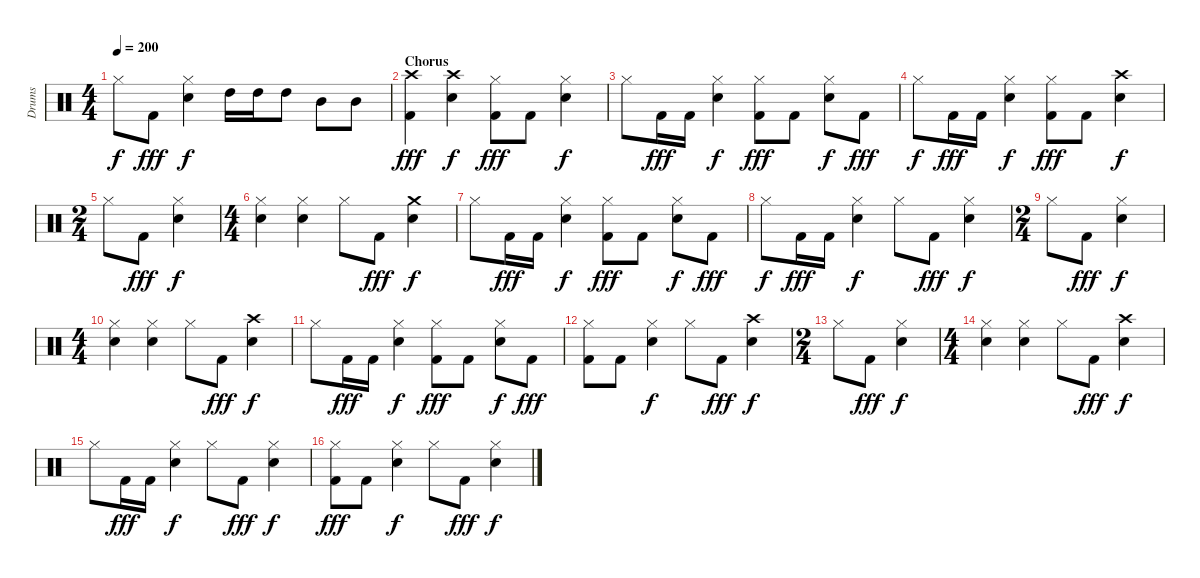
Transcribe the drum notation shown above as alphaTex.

\track ("Drums" "Drums") {instrument percussion}
\staff {score}
\articulation defaults
\ts (4 4)
\tempo 200
\clef neutral
\ks c "Hi-Hat (closed)".8{dy f} "Kick (hit) 2".8{dy fff}
("Hi-Hat (closed)" "Snare (hit) 2").4{dy f} "High Tom (hit)".16 "High Tom (hit)".16 "High Tom (hit)".8 "Mid Tom (hit)".8 "Mid Tom (hit)".8 |
\section ("" "Chorus")
("Crash high (hit)" "Kick (hit) 2").4{dy fff} ("Crash high (hit)" "Snare (hit) 2").4{dy f} ("Hi-Hat (closed)" "Kick (hit) 2").8{dy fff} "Kick (hit) 2".8 ("Hi-Hat (closed)" "Snare (hit) 2").4{dy f} |
"Hi-Hat (closed)".8 "Kick (hit) 2".16{dy fff} "Kick (hit) 2".16 ("Hi-Hat (closed)" "Snare (hit) 2").4{dy f} ("Hi-Hat (closed)" "Kick (hit) 2").8{dy fff} "Kick (hit) 2".8 ("Hi-Hat (closed)" "Snare (hit) 2").8{dy f} "Kick (hit) 2".8{dy fff} |
"Hi-Hat (closed)".8{dy f} "Kick (hit) 2".16{dy fff} "Kick (hit) 2".16 ("Hi-Hat (closed)" "Snare (hit) 2").4{dy f} ("Hi-Hat (closed)" "Kick (hit) 2").8{dy fff} "Kick (hit) 2".8 ("Crash high (hit)" "Snare (hit) 2").4{dy f} |
\ts (2 4)
"Hi-Hat (closed)".8 "Kick (hit) 2".8{dy fff} ("Hi-Hat (closed)" "Snare (hit) 2").4{dy f} |
\ts (4 4)
("Hi-Hat (closed)" "Snare (hit) 2").4 ("Hi-Hat (closed)" "Snare (hit) 2").4 "Hi-Hat (closed)".8 "Kick (hit) 2".8{dy fff} ("Crash medium (hit)" "Snare (hit) 2").4{dy f} |
"Hi-Hat (closed)".8 "Kick (hit) 2".16{dy fff} "Kick (hit) 2".16 ("Hi-Hat (closed)" "Snare (hit) 2").4{dy f} ("Hi-Hat (closed)" "Kick (hit) 2").8{dy fff} "Kick (hit) 2".8 ("Hi-Hat (closed)" "Snare (hit) 2").8{dy f} "Kick (hit) 2".8{dy fff} |
"Hi-Hat (closed)".8{dy f} "Kick (hit) 2".16{dy fff} "Kick (hit) 2".16 ("Hi-Hat (closed)" "Snare (hit) 2").4{dy f} "Hi-Hat (closed)".8 "Kick (hit) 2".8{dy fff} ("Hi-Hat (closed)" "Snare (hit) 2").4{dy f} |
\ts (2 4)
"Hi-Hat (closed)".8 "Kick (hit) 2".8{dy fff} ("Hi-Hat (closed)" "Snare (hit) 2").4{dy f} |
\ts (4 4)
("Hi-Hat (closed)" "Snare (hit) 2").4 ("Hi-Hat (closed)" "Snare (hit) 2").4 "Hi-Hat (closed)".8 "Kick (hit) 2".8{dy fff} ("Crash high (hit)" "Snare (hit) 2").4{dy f} |
"Hi-Hat (closed)".8 "Kick (hit) 2".16{dy fff} "Kick (hit) 2".16 ("Hi-Hat (closed)" "Snare (hit) 2").4{dy f} ("Hi-Hat (closed)" "Kick (hit) 2").8{dy fff} "Kick (hit) 2".8 ("Hi-Hat (closed)" "Snare (hit) 2").8{dy f} "Kick (hit) 2".8{dy fff} |
("Hi-Hat (closed)" "Kick (hit) 2").8 "Kick (hit) 2".8 ("Hi-Hat (closed)" "Snare (hit) 2").4{dy f} "Hi-Hat (closed)".8 "Kick (hit) 2".8{dy fff} ("Crash high (hit)" "Snare (hit) 2").4{dy f} |
\ts (2 4)
"Hi-Hat (closed)".8 "Kick (hit) 2".8{dy fff} ("Hi-Hat (closed)" "Snare (hit) 2").4{dy f} |
\ts (4 4)
("Hi-Hat (closed)" "Snare (hit) 2").4 ("Hi-Hat (closed)" "Snare (hit) 2").4 "Hi-Hat (closed)".8 "Kick (hit) 2".8{dy fff} ("Crash high (hit)" "Snare (hit) 2").4{dy f} |
"Hi-Hat (closed)".8 "Kick (hit) 2".16{dy fff} "Kick (hit) 2".16 ("Hi-Hat (closed)" "Snare (hit) 2").4{dy f} "Hi-Hat (closed)".8 "Kick (hit) 2".8{dy fff} ("Hi-Hat (closed)" "Snare (hit) 2").4{dy f} |
("Hi-Hat (closed)" "Kick (hit) 2").8{dy fff} "Kick (hit) 2".8 ("Hi-Hat (closed)" "Snare (hit) 2").4{dy f} "Hi-Hat (closed)".8 "Kick (hit) 2".8{dy fff} ("Hi-Hat (closed)" "Snare (hit) 2").4{dy f}
